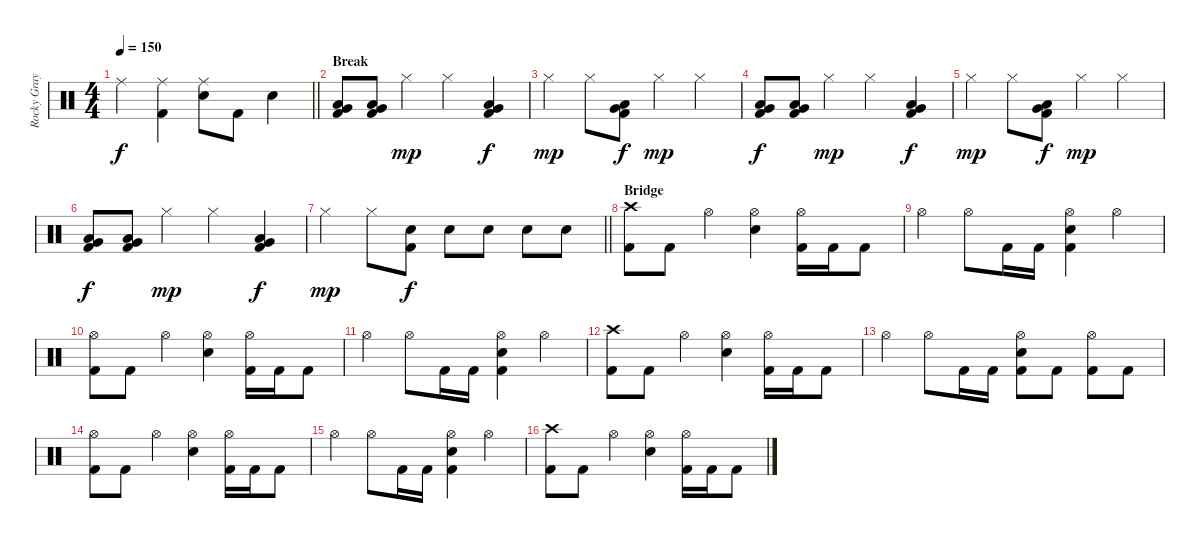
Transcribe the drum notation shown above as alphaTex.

\track ("Rocky Gray" "Rocky Gray") {instrument percussion}
\staff {score}
\articulation defaults
\ts (4 4)
\tempo 150
\clef neutral
\barLineRight lightlight
\ks c "Ride (middle)".4{dy f}
("Ride (middle)" "Kick (hit) 2").4 ("Ride (middle)" "Snare (hit) 2").8 "Kick (hit) 2".8 "Snare (hit) 2".4 |
\section ("" "Break")
("Very Low Tom (hit)" "Low Tom (hit)" "Kick (hit) 2").8 ("Very Low Tom (hit)" "Low Tom (hit)" "Kick (hit) 2").8 "Hi-Hat (closed)".4{dy mp} "Hi-Hat (closed)".4 ("Very Low Tom (hit)" "Low Tom (hit)" "Kick (hit) 2").4{dy f} |
"Hi-Hat (closed)".4{dy mp} "Hi-Hat (closed)".8 ("Very Low Tom (hit)" "Low Tom (hit)" "Kick (hit) 2").8{dy f} "Hi-Hat (closed)".4{dy mp} "Hi-Hat (closed)".4 |
("Very Low Tom (hit)" "Low Tom (hit)" "Kick (hit) 2").8{dy f} ("Very Low Tom (hit)" "Low Tom (hit)" "Kick (hit) 2").8 "Hi-Hat (closed)".4{dy mp} "Hi-Hat (closed)".4 ("Very Low Tom (hit)" "Low Tom (hit)" "Kick (hit) 2").4{dy f} |
"Hi-Hat (closed)".4{dy mp} "Hi-Hat (closed)".8 ("Very Low Tom (hit)" "Low Tom (hit)" "Kick (hit) 2").8{dy f} "Hi-Hat (closed)".4{dy mp} "Hi-Hat (closed)".4 |
("Very Low Tom (hit)" "Low Tom (hit)" "Kick (hit) 2").8{dy f} ("Very Low Tom (hit)" "Low Tom (hit)" "Kick (hit) 2").8 "Hi-Hat (closed)".4{dy mp} "Hi-Hat (closed)".4 ("Very Low Tom (hit)" "Low Tom (hit)" "Kick (hit) 2").4{dy f} |
\barLineRight lightlight "Hi-Hat (closed)".4{dy mp} "Hi-Hat (closed)".8
("Snare (hit) 2" "Kick (hit) 2").8{dy f} "Snare (hit) 2".8 "Snare (hit) 2".8 "Snare (hit) 2".8 "Snare (hit) 2".8 |
\section ("" "Bridge")
("Crash high (hit)" "Kick (hit) 2").8 "Kick (hit) 2".8 "Hi-Hat (open)".4 ("Hi-Hat (open)" "Snare (hit) 2").4 ("Hi-Hat (open)" "Kick (hit) 2").16 "Kick (hit) 2".16 "Kick (hit) 2".8 |
"Hi-Hat (open)".4 "Hi-Hat (open)".8 "Kick (hit) 2".16 "Kick (hit) 2".16 ("Hi-Hat (open)" "Snare (hit) 2" "Kick (hit) 2").4 "Hi-Hat (open)".4 |
("Hi-Hat (open)" "Kick (hit) 2").8 "Kick (hit) 2".8 "Hi-Hat (open)".4 ("Hi-Hat (open)" "Snare (hit) 2").4 ("Hi-Hat (open)" "Kick (hit) 2").16 "Kick (hit) 2".16 "Kick (hit) 2".8 |
"Hi-Hat (open)".4 "Hi-Hat (open)".8 "Kick (hit) 2".16 "Kick (hit) 2".16 ("Hi-Hat (open)" "Snare (hit) 2" "Kick (hit) 2").4 "Hi-Hat (open)".4 |
("Crash high (hit)" "Kick (hit) 2").8 "Kick (hit) 2".8 "Hi-Hat (open)".4 ("Hi-Hat (open)" "Snare (hit) 2").4 ("Hi-Hat (open)" "Kick (hit) 2").16 "Kick (hit) 2".16 "Kick (hit) 2".8 |
"Hi-Hat (open)".4 "Hi-Hat (open)".8 "Kick (hit) 2".16 "Kick (hit) 2".16 ("Hi-Hat (open)" "Snare (hit) 2" "Kick (hit) 2").8 "Kick (hit) 2".8 ("Hi-Hat (open)" "Kick (hit) 2").8 "Kick (hit) 2".8 |
("Hi-Hat (open)" "Kick (hit) 2").8 "Kick (hit) 2".8 "Hi-Hat (open)".4 ("Hi-Hat (open)" "Snare (hit) 2").4 ("Hi-Hat (open)" "Kick (hit) 2").16 "Kick (hit) 2".16 "Kick (hit) 2".8 |
"Hi-Hat (open)".4 "Hi-Hat (open)".8 "Kick (hit) 2".16 "Kick (hit) 2".16 ("Hi-Hat (open)" "Snare (hit) 2" "Kick (hit) 2").4 "Hi-Hat (open)".4 |
("Crash high (hit)" "Kick (hit) 2").8 "Kick (hit) 2".8 "Hi-Hat (open)".4 ("Hi-Hat (open)" "Snare (hit) 2").4 ("Hi-Hat (open)" "Kick (hit) 2").16 "Kick (hit) 2".16 "Kick (hit) 2".8
